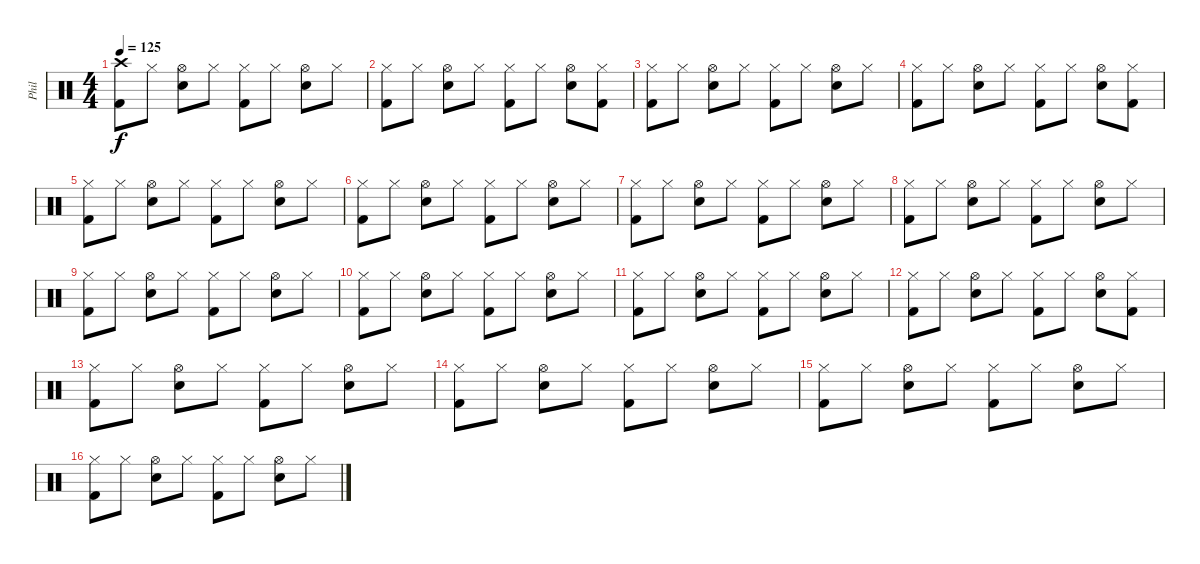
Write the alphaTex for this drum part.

\track ("Phil" "Phil") {instrument percussion}
\staff {score}
\articulation defaults
\ts (4 4)
\tempo 125
\clef neutral
\ks c
("Crash high (hit)" "Kick (hit) 2").8{dy f} "Hi-Hat (closed)".8 ("Hi-Hat (open)" "Snare (hit) 2").8 "Hi-Hat (closed)".8 ("Hi-Hat (closed)" "Kick (hit) 2").8 "Hi-Hat (closed)".8 ("Hi-Hat (open)" "Snare (hit) 2").8 "Hi-Hat (closed)".8 |
("Hi-Hat (closed)" "Kick (hit) 2").8 "Hi-Hat (closed)".8 ("Hi-Hat (open)" "Snare (hit) 2").8 "Hi-Hat (closed)".8 ("Hi-Hat (closed)" "Kick (hit) 2").8 "Hi-Hat (closed)".8 ("Hi-Hat (open)" "Snare (hit) 2").8 ("Hi-Hat (closed)" "Kick (hit) 2").8 |
("Hi-Hat (closed)" "Kick (hit) 2").8 "Hi-Hat (closed)".8 ("Hi-Hat (open)" "Snare (hit) 2").8 "Hi-Hat (closed)".8 ("Hi-Hat (closed)" "Kick (hit) 2").8 "Hi-Hat (closed)".8 ("Hi-Hat (open)" "Snare (hit) 2").8 "Hi-Hat (closed)".8 |
("Hi-Hat (closed)" "Kick (hit) 2").8 "Hi-Hat (closed)".8 ("Hi-Hat (open)" "Snare (hit) 2").8 "Hi-Hat (closed)".8 ("Hi-Hat (closed)" "Kick (hit) 2").8 "Hi-Hat (closed)".8 ("Hi-Hat (open)" "Snare (hit) 2").8 ("Hi-Hat (closed)" "Kick (hit) 2").8 |
("Hi-Hat (closed)" "Kick (hit) 2").8 "Hi-Hat (closed)".8 ("Hi-Hat (open)" "Snare (hit) 2").8 "Hi-Hat (closed)".8 ("Hi-Hat (closed)" "Kick (hit) 2").8 "Hi-Hat (closed)".8 ("Hi-Hat (open)" "Snare (hit) 2").8 "Hi-Hat (closed)".8 |
("Hi-Hat (closed)" "Kick (hit) 2").8 "Hi-Hat (closed)".8 ("Hi-Hat (open)" "Snare (hit) 2").8 "Hi-Hat (closed)".8 ("Hi-Hat (closed)" "Kick (hit) 2").8 "Hi-Hat (closed)".8 ("Hi-Hat (open)" "Snare (hit) 2").8 "Hi-Hat (closed)".8 |
("Hi-Hat (closed)" "Kick (hit) 2").8 "Hi-Hat (closed)".8 ("Hi-Hat (open)" "Snare (hit) 2").8 "Hi-Hat (closed)".8 ("Hi-Hat (closed)" "Kick (hit) 2").8 "Hi-Hat (closed)".8 ("Hi-Hat (open)" "Snare (hit) 2").8 "Hi-Hat (closed)".8 |
("Hi-Hat (closed)" "Kick (hit) 2").8 "Hi-Hat (closed)".8 ("Hi-Hat (open)" "Snare (hit) 2").8 "Hi-Hat (closed)".8 ("Hi-Hat (closed)" "Kick (hit) 2").8 "Hi-Hat (closed)".8 ("Hi-Hat (open)" "Snare (hit) 2").8 "Hi-Hat (closed)".8 |
("Hi-Hat (closed)" "Kick (hit) 2").8 "Hi-Hat (closed)".8 ("Hi-Hat (open)" "Snare (hit) 2").8 "Hi-Hat (closed)".8 ("Hi-Hat (closed)" "Kick (hit) 2").8 "Hi-Hat (closed)".8 ("Hi-Hat (open)" "Snare (hit) 2").8 "Hi-Hat (closed)".8 |
("Hi-Hat (closed)" "Kick (hit) 2").8 "Hi-Hat (closed)".8 ("Hi-Hat (open)" "Snare (hit) 2").8 "Hi-Hat (closed)".8 ("Hi-Hat (closed)" "Kick (hit) 2").8 "Hi-Hat (closed)".8 ("Hi-Hat (open)" "Snare (hit) 2").8 "Hi-Hat (closed)".8 |
("Hi-Hat (closed)" "Kick (hit) 2").8 "Hi-Hat (closed)".8 ("Hi-Hat (open)" "Snare (hit) 2").8 "Hi-Hat (closed)".8 ("Hi-Hat (closed)" "Kick (hit) 2").8 "Hi-Hat (closed)".8 ("Hi-Hat (open)" "Snare (hit) 2").8 "Hi-Hat (closed)".8 |
("Hi-Hat (closed)" "Kick (hit) 2").8 "Hi-Hat (closed)".8 ("Hi-Hat (open)" "Snare (hit) 2").8 "Hi-Hat (closed)".8 ("Hi-Hat (closed)" "Kick (hit) 2").8 "Hi-Hat (closed)".8 ("Hi-Hat (open)" "Snare (hit) 2").8 ("Hi-Hat (closed)" "Kick (hit) 2").8 |
("Hi-Hat (closed)" "Kick (hit) 2").8 "Hi-Hat (closed)".8 ("Hi-Hat (open)" "Snare (hit) 2").8 "Hi-Hat (closed)".8 ("Hi-Hat (closed)" "Kick (hit) 2").8 "Hi-Hat (closed)".8 ("Hi-Hat (open)" "Snare (hit) 2").8 "Hi-Hat (closed)".8 |
("Hi-Hat (closed)" "Kick (hit) 2").8 "Hi-Hat (closed)".8 ("Hi-Hat (open)" "Snare (hit) 2").8 "Hi-Hat (closed)".8 ("Hi-Hat (closed)" "Kick (hit) 2").8 "Hi-Hat (closed)".8 ("Hi-Hat (open)" "Snare (hit) 2").8 "Hi-Hat (closed)".8 |
("Hi-Hat (closed)" "Kick (hit) 2").8 "Hi-Hat (closed)".8 ("Hi-Hat (open)" "Snare (hit) 2").8 "Hi-Hat (closed)".8 ("Hi-Hat (closed)" "Kick (hit) 2").8 "Hi-Hat (closed)".8 ("Hi-Hat (open)" "Snare (hit) 2").8 "Hi-Hat (closed)".8 |
("Hi-Hat (closed)" "Kick (hit) 2").8 "Hi-Hat (closed)".8 ("Hi-Hat (open)" "Snare (hit) 2").8 "Hi-Hat (closed)".8 ("Hi-Hat (closed)" "Kick (hit) 2").8 "Hi-Hat (closed)".8 ("Hi-Hat (open)" "Snare (hit) 2").8 "Hi-Hat (closed)".8
